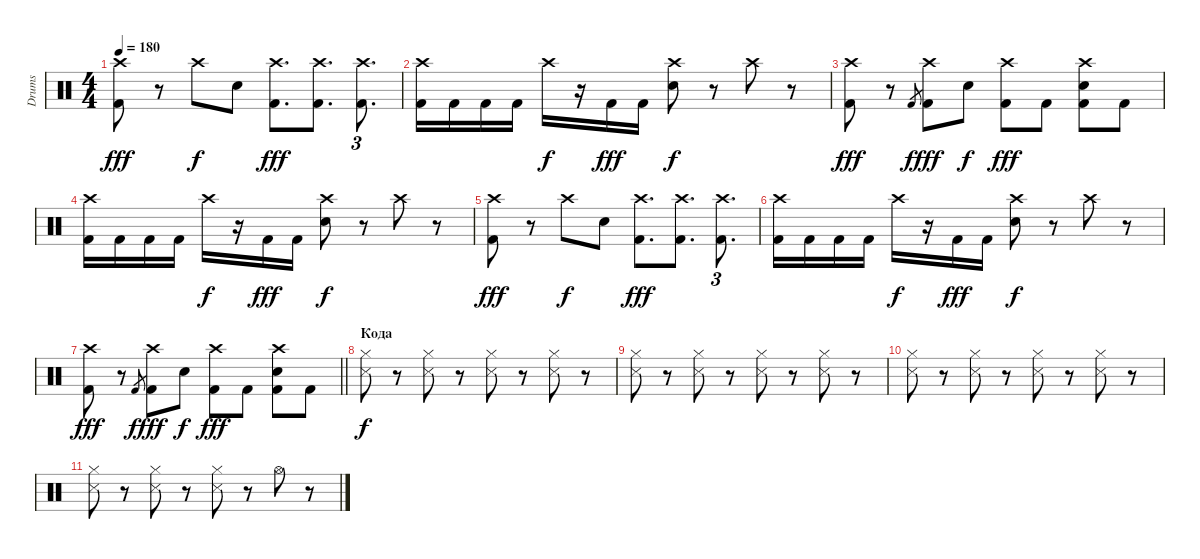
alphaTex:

\track ("Drums" "Drums") {instrument percussion}
\staff {score}
\articulation defaults
\ts (4 4)
\tempo 180
\clef neutral
\ks c
("Crash high (hit)" "Kick (hit) 2").8{dy fff} r.8 "Crash high (hit)".8{dy f} "Electric Snare (hit)".8 ("Crash high (hit)" "Kick (hit) 2").8{d dy fff} ("Crash high (hit)" "Kick (hit) 2").8{d} ("Crash high (hit)" "Kick (hit) 2").8{d tu (3 2)} |
("Crash high (hit)" "Kick (hit) 2").16 "Kick (hit) 2".16 "Kick (hit) 2".16 "Kick (hit) 2".16 "Crash high (hit)".16{dy f} r.16 "Kick (hit) 2".16{dy fff} "Kick (hit) 2".16 ("Crash high (hit)" "Electric Snare (hit)").8{dy f} r.8 "Crash high (hit)".8 r.8 |
("Crash high (hit)" "Kick (hit) 2").8{dy fff} r.8 "Kick (hit) 2".8{gr dy f} ("Crash high (hit)" "Kick (hit) 2").8{dy fff} "Electric Snare (hit)".8{dy f} ("Crash high (hit)" "Kick (hit) 2").8{dy fff} "Kick (hit) 2".8 ("Crash high (hit)" "Electric Snare (hit)" "Kick (hit) 2").8 "Kick (hit) 2".8 |
("Crash high (hit)" "Kick (hit) 2").16 "Kick (hit) 2".16 "Kick (hit) 2".16 "Kick (hit) 2".16 "Crash high (hit)".16{dy f} r.16 "Kick (hit) 2".16{dy fff} "Kick (hit) 2".16 ("Crash high (hit)" "Electric Snare (hit)").8{dy f} r.8 "Crash high (hit)".8 r.8 |
("Crash high (hit)" "Kick (hit) 2").8{dy fff} r.8 "Crash high (hit)".8{dy f} "Electric Snare (hit)".8 ("Crash high (hit)" "Kick (hit) 2").8{d dy fff} ("Crash high (hit)" "Kick (hit) 2").8{d} ("Crash high (hit)" "Kick (hit) 2").8{d tu (3 2)} |
("Crash high (hit)" "Kick (hit) 2").16 "Kick (hit) 2".16 "Kick (hit) 2".16 "Kick (hit) 2".16 "Crash high (hit)".16{dy f} r.16 "Kick (hit) 2".16{dy fff} "Kick (hit) 2".16 ("Crash high (hit)" "Electric Snare (hit)").8{dy f} r.8 "Crash high (hit)".8 r.8 |
\barLineRight lightlight
("Crash high (hit)" "Kick (hit) 2").8{dy fff} r.8 "Kick (hit) 2".8{gr dy f} ("Crash high (hit)" "Kick (hit) 2").8{dy fff} "Electric Snare (hit)".8{dy f} ("Crash high (hit)" "Kick (hit) 2").8{dy fff} "Kick (hit) 2".8 ("Crash high (hit)" "Electric Snare (hit)" "Kick (hit) 2").8 "Kick (hit) 2".8 |
\section ("" "Кода")
("Metronome (hit)" "Hi-Hat (closed)").8{dy f} r.8 ("Metronome (hit)" "Hi-Hat (closed)").8 r.8 ("Metronome (hit)" "Hi-Hat (closed)").8 r.8 ("Metronome (hit)" "Hi-Hat (closed)").8 r.8 |
("Metronome (hit)" "Hi-Hat (closed)").8 r.8 ("Metronome (hit)" "Hi-Hat (closed)").8 r.8 ("Metronome (hit)" "Hi-Hat (closed)").8 r.8 ("Metronome (hit)" "Hi-Hat (closed)").8 r.8 |
("Metronome (hit)" "Hi-Hat (closed)").8 r.8 ("Metronome (hit)" "Hi-Hat (closed)").8 r.8 ("Metronome (hit)" "Hi-Hat (closed)").8 r.8 ("Metronome (hit)" "Hi-Hat (closed)").8 r.8 |
("Metronome (hit)" "Hi-Hat (closed)").8 r.8 ("Metronome (hit)" "Hi-Hat (closed)").8 r.8 ("Metronome (hit)" "Hi-Hat (closed)").8 r.8 "Hi-Hat (open)".8 r.8
